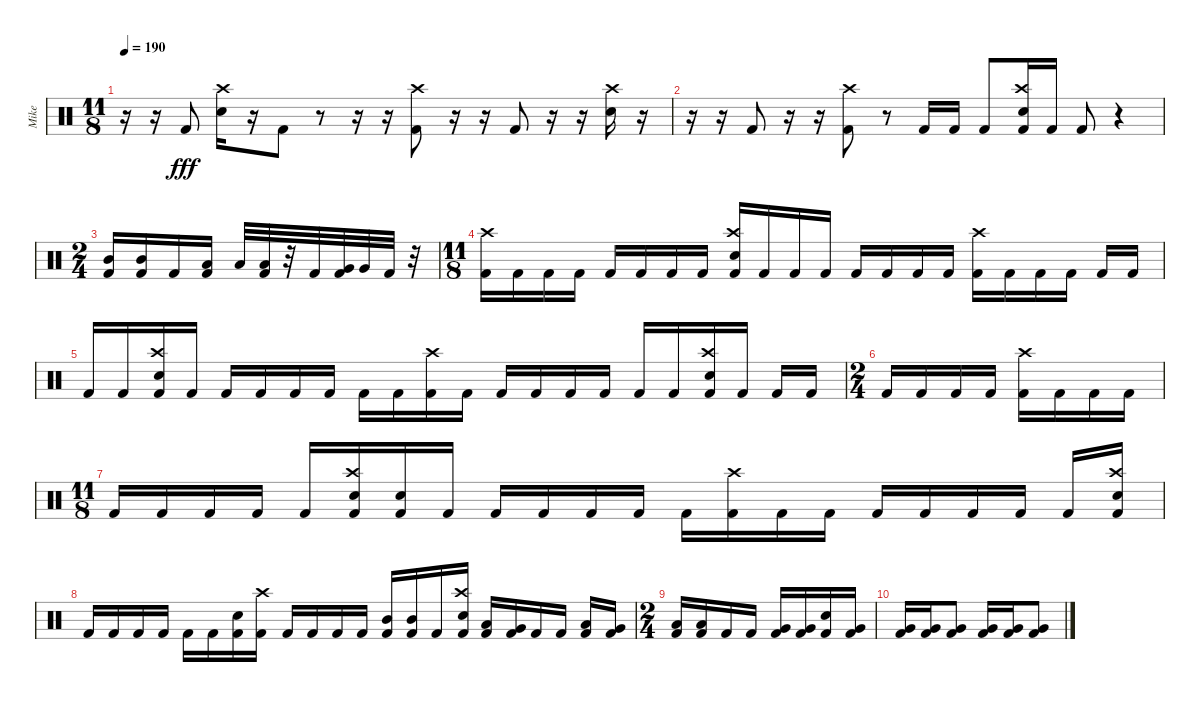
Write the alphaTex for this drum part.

\track ("Mike" "Mike") {instrument percussion}
\staff {score}
\articulation defaults
\ts (11 8)
\tempo 190
\clef neutral
\ks c
r.16{dy fff} r.16 "Kick (hit) 2".8 ("Crash high (hit)" "Electric Snare (hit)").16 r.16 "Kick (hit) 2".8 r.8 r.16 r.16 ("Crash high (hit)" "Kick (hit) 2").8 r.16 r.16 "Kick (hit) 2".8 r.16 r.16 ("Electric Snare (hit)" "Crash high (hit)").16 r.16 |
r.16 r.16 "Kick (hit) 2".8 r.16 r.16 ("Crash high (hit)" "Kick (hit) 2").8 r.8 "Kick (hit) 2".16 "Kick (hit) 2".16 "Kick (hit) 2".8 ("Crash high (hit)" "Electric Snare (hit)" "Kick (hit) 2").16 "Kick (hit) 2".16 "Kick (hit) 2".8 r.4 |
\ts (2 4)
("Mid Tom (hit)" "Kick (hit) 2").16 ("Mid Tom (hit)" "Kick (hit) 2").16 "Kick (hit) 2".16 ("Low Tom (hit)" "Kick (hit) 2").16 "Low Tom (hit)".32 ("Low Tom (hit)" "Kick (hit) 2").32 r.32 "Kick (hit) 2".32 ("Very Low Tom (hit)" "Kick (hit) 2").32 "Very Low Tom (hit)".32 "Kick (hit) 2".32 r.32 |
\ts (11 8)
("Crash high (hit)" "Kick (hit) 2").16 "Kick (hit) 2".16 "Kick (hit) 2".16 "Kick (hit) 2".16 "Kick (hit) 2".16 "Kick (hit) 2".16 "Kick (hit) 2".16 "Kick (hit) 2".16 ("Crash high (hit)" "Electric Snare (hit)" "Kick (hit) 2").16 "Kick (hit) 2".16 "Kick (hit) 2".16 "Kick (hit) 2".16 "Kick (hit) 2".16 "Kick (hit) 2".16 "Kick (hit) 2".16 "Kick (hit) 2".16 ("Crash high (hit)" "Kick (hit) 2").16 "Kick (hit) 2".16 "Kick (hit) 2".16 "Kick (hit) 2".16 "Kick (hit) 2".16 "Kick (hit) 2".16 |
"Kick (hit) 2".16 "Kick (hit) 2".16 ("Electric Snare (hit)" "Crash high (hit)" "Kick (hit) 2").16 "Kick (hit) 2".16 "Kick (hit) 2".16 "Kick (hit) 2".16 "Kick (hit) 2".16 "Kick (hit) 2".16 "Kick (hit) 2".16 "Kick (hit) 2".16 ("Crash high (hit)" "Kick (hit) 2").16 "Kick (hit) 2".16 "Kick (hit) 2".16 "Kick (hit) 2".16 "Kick (hit) 2".16 "Kick (hit) 2".16 "Kick (hit) 2".16 "Kick (hit) 2".16 ("Electric Snare (hit)" "Crash high (hit)" "Kick (hit) 2").16 "Kick (hit) 2".16 "Kick (hit) 2".16 "Kick (hit) 2".16 |
\ts (2 4)
"Kick (hit) 2".16 "Kick (hit) 2".16 "Kick (hit) 2".16 "Kick (hit) 2".16 ("Crash high (hit)" "Kick (hit) 2").16 "Kick (hit) 2".16 "Kick (hit) 2".16 "Kick (hit) 2".16 |
\ts (11 8)
"Kick (hit) 2".16 "Kick (hit) 2".16 "Kick (hit) 2".16 "Kick (hit) 2".16 "Kick (hit) 2".16 ("Electric Snare (hit)" "Crash high (hit)" "Kick (hit) 2").16 ("Electric Snare (hit)" "Kick (hit) 2").16 "Kick (hit) 2".16 "Kick (hit) 2".16 "Kick (hit) 2".16 "Kick (hit) 2".16 "Kick (hit) 2".16 "Kick (hit) 2".16 ("Crash high (hit)" "Kick (hit) 2").16 "Kick (hit) 2".16 "Kick (hit) 2".16 "Kick (hit) 2".16 "Kick (hit) 2".16 "Kick (hit) 2".16 "Kick (hit) 2".16 "Kick (hit) 2".16 ("Crash high (hit)" "Electric Snare (hit)" "Kick (hit) 2").16 |
"Kick (hit) 2".16 "Kick (hit) 2".16 "Kick (hit) 2".16 "Kick (hit) 2".16 "Kick (hit) 2".16 "Kick (hit) 2".16 ("Electric Snare (hit)" "Kick (hit) 2").16 ("Crash high (hit)" "Kick (hit) 2").16 "Kick (hit) 2".16 "Kick (hit) 2".16 "Kick (hit) 2".16 "Kick (hit) 2".16 ("Mid Tom (hit)" "Kick (hit) 2").16 ("Mid Tom (hit)" "Kick (hit) 2").16 "Kick (hit) 2".16 ("Crash high (hit)" "Electric Snare (hit)" "Kick (hit) 2").16 ("Low Tom (hit)" "Kick (hit) 2").16 ("Very Low Tom (hit)" "Kick (hit) 2").16 "Kick (hit) 2".16 "Kick (hit) 2".16 ("Low Tom (hit)" "Kick (hit) 2").16 ("Very Low Tom (hit)" "Kick (hit) 2").16 |
\ts (2 4)
("Low Tom (hit)" "Kick (hit) 2").16 ("Low Tom (hit)" "Kick (hit) 2").16 "Kick (hit) 2".16 "Kick (hit) 2".16 ("Very Low Tom (hit)" "Kick (hit) 2").16 ("Very Low Tom (hit)" "Kick (hit) 2").16 ("Electric Snare (hit)" "Kick (hit) 2").16 ("Very Low Tom (hit)" "Kick (hit) 2").16 |
("Very Low Tom (hit)" "Kick (hit) 2").16 ("Very Low Tom (hit)" "Kick (hit) 2").16 ("Very Low Tom (hit)" "Kick (hit) 2").8 ("Very Low Tom (hit)" "Kick (hit) 2").16 ("Very Low Tom (hit)" "Kick (hit) 2").16 ("Very Low Tom (hit)" "Kick (hit) 2").8
